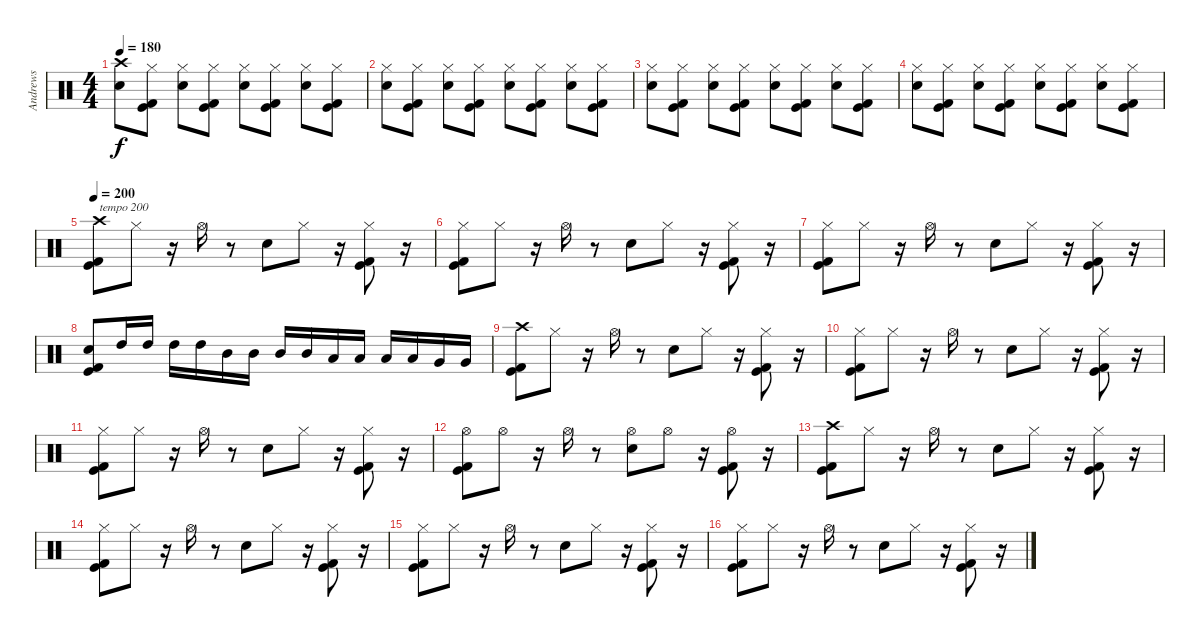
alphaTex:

\track ("Andrews" "Andrews") {instrument percussion}
\staff {score}
\articulation defaults
\ts (4 4)
\tempo 180
\clef neutral
\ks c
("Crash high (hit)" "Electric Snare (hit)").8{dy f} ("Hi-Hat (closed)" "Kick (hit) 2" "Kick (hit)").8 ("Hi-Hat (closed)" "Electric Snare (hit)").8 ("Hi-Hat (closed)" "Kick (hit) 2" "Kick (hit)").8 ("Hi-Hat (closed)" "Electric Snare (hit)").8 ("Hi-Hat (closed)" "Kick (hit) 2" "Kick (hit)").8 ("Hi-Hat (closed)" "Electric Snare (hit)").8 ("Hi-Hat (closed)" "Kick (hit) 2" "Kick (hit)").8 |
("Hi-Hat (closed)" "Electric Snare (hit)").8 ("Hi-Hat (closed)" "Kick (hit) 2" "Kick (hit)").8 ("Hi-Hat (closed)" "Electric Snare (hit)").8 ("Hi-Hat (closed)" "Kick (hit) 2" "Kick (hit)").8 ("Hi-Hat (closed)" "Electric Snare (hit)").8 ("Hi-Hat (closed)" "Kick (hit) 2" "Kick (hit)").8 ("Hi-Hat (closed)" "Electric Snare (hit)").8 ("Hi-Hat (closed)" "Kick (hit) 2" "Kick (hit)").8 |
("Hi-Hat (closed)" "Electric Snare (hit)").8 ("Hi-Hat (closed)" "Kick (hit) 2" "Kick (hit)").8 ("Hi-Hat (closed)" "Electric Snare (hit)").8 ("Hi-Hat (closed)" "Kick (hit) 2" "Kick (hit)").8 ("Hi-Hat (closed)" "Electric Snare (hit)").8 ("Hi-Hat (closed)" "Kick (hit) 2" "Kick (hit)").8 ("Hi-Hat (closed)" "Electric Snare (hit)").8 ("Hi-Hat (closed)" "Kick (hit) 2" "Kick (hit)").8 |
("Hi-Hat (closed)" "Electric Snare (hit)").8 ("Hi-Hat (closed)" "Kick (hit) 2" "Kick (hit)").8 ("Hi-Hat (closed)" "Electric Snare (hit)").8 ("Hi-Hat (closed)" "Kick (hit) 2" "Kick (hit)").8 ("Hi-Hat (closed)" "Electric Snare (hit)").8 ("Hi-Hat (closed)" "Kick (hit) 2" "Kick (hit)").8 ("Hi-Hat (closed)" "Electric Snare (hit)").8 ("Hi-Hat (closed)" "Kick (hit) 2" "Kick (hit)").8 |
\tempo 200
("Crash high (hit)" "Kick (hit) 2" "Kick (hit)").8{txt "tempo 200"} "Hi-Hat (closed)".8 r.16 "Hi-Hat (open)".16 r.8 "Electric Snare (hit)".8 "Hi-Hat (closed)".8 r.16 ("Hi-Hat (closed)" "Kick (hit) 2" "Kick (hit)").8 r.16 |
("Hi-Hat (closed)" "Kick (hit) 2" "Kick (hit)").8 "Hi-Hat (closed)".8 r.16 "Hi-Hat (open)".16 r.8 "Electric Snare (hit)".8 "Hi-Hat (closed)".8 r.16 ("Hi-Hat (closed)" "Kick (hit) 2" "Kick (hit)").8 r.16 |
("Hi-Hat (closed)" "Kick (hit) 2" "Kick (hit)").8 "Hi-Hat (closed)".8 r.16 "Hi-Hat (open)".16 r.8 "Electric Snare (hit)".8 "Hi-Hat (closed)".8 r.16 ("Hi-Hat (closed)" "Kick (hit) 2" "Kick (hit)").8 r.16 |
("Electric Snare (hit)" "Kick (hit) 2" "Kick (hit)").8 "High Tom (hit)".16 "High Tom (hit)".16 "High Tom (hit)".16 "High Tom (hit)".16 "Mid Tom (hit)".16 "Mid Tom (hit)".16 "Mid Tom (hit)".16 "Mid Tom (hit)".16 "Low Tom (hit)".16 "Low Tom (hit)".16 "Low Tom (hit)".16 "Low Tom (hit)".16 "Very Low Tom (hit)".16 "Very Low Tom (hit)".16 |
("Crash high (hit)" "Kick (hit) 2" "Kick (hit)").8 "Hi-Hat (closed)".8 r.16 "Hi-Hat (open)".16 r.8 "Electric Snare (hit)".8 "Hi-Hat (closed)".8 r.16 ("Hi-Hat (closed)" "Kick (hit) 2" "Kick (hit)").8 r.16 |
("Hi-Hat (closed)" "Kick (hit) 2" "Kick (hit)").8 "Hi-Hat (closed)".8 r.16 "Hi-Hat (open)".16 r.8 "Electric Snare (hit)".8 "Hi-Hat (closed)".8 r.16 ("Hi-Hat (closed)" "Kick (hit) 2" "Kick (hit)").8 r.16 |
("Hi-Hat (closed)" "Kick (hit) 2" "Kick (hit)").8 "Hi-Hat (closed)".8 r.16 "Hi-Hat (open)".16 r.8 "Electric Snare (hit)".8 "Hi-Hat (closed)".8 r.16 ("Hi-Hat (closed)" "Kick (hit) 2" "Kick (hit)").8 r.16 |
("Hi-Hat (open)" "Kick (hit) 2" "Kick (hit)").8 "Hi-Hat (open)".8 r.16 "Hi-Hat (open)".16 r.8 ("Electric Snare (hit)" "Hi-Hat (open)").8 "Hi-Hat (open)".8 r.16 ("Hi-Hat (open)" "Kick (hit) 2" "Kick (hit)").8 r.16 |
("Crash high (hit)" "Kick (hit) 2" "Kick (hit)").8 "Hi-Hat (closed)".8 r.16 "Hi-Hat (open)".16 r.8 "Electric Snare (hit)".8 "Hi-Hat (closed)".8 r.16 ("Hi-Hat (closed)" "Kick (hit) 2" "Kick (hit)").8 r.16 |
("Hi-Hat (closed)" "Kick (hit) 2" "Kick (hit)").8 "Hi-Hat (closed)".8 r.16 "Hi-Hat (open)".16 r.8 "Electric Snare (hit)".8 "Hi-Hat (closed)".8 r.16 ("Hi-Hat (closed)" "Kick (hit) 2" "Kick (hit)").8 r.16 |
("Hi-Hat (closed)" "Kick (hit) 2" "Kick (hit)").8 "Hi-Hat (closed)".8 r.16 "Hi-Hat (open)".16 r.8 "Electric Snare (hit)".8 "Hi-Hat (closed)".8 r.16 ("Hi-Hat (closed)" "Kick (hit) 2" "Kick (hit)").8 r.16 |
("Hi-Hat (closed)" "Kick (hit) 2" "Kick (hit)").8 "Hi-Hat (closed)".8 r.16 "Hi-Hat (open)".16 r.8 "Electric Snare (hit)".8 "Hi-Hat (closed)".8 r.16 ("Hi-Hat (closed)" "Kick (hit) 2" "Kick (hit)").8 r.16
